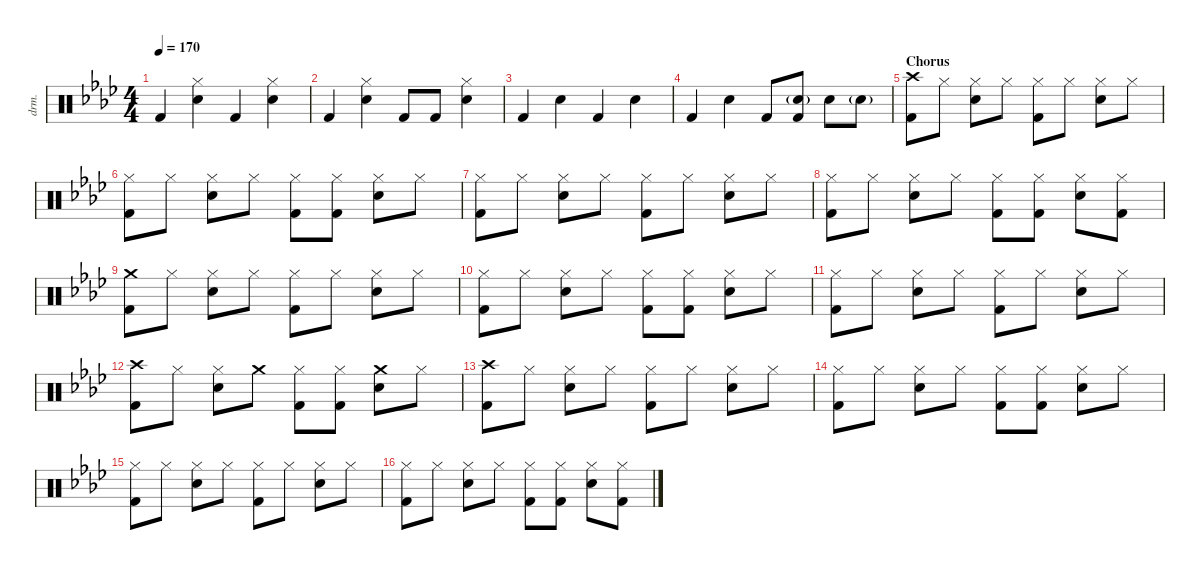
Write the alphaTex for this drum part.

\defaultSystemsLayout 4
\hideDynamics
\bracketExtendMode nobrackets
\otherSystemsTrackNameOrientation horizontal
\track ("Drumkit" "drm.") {instrument percussion}
\staff {score}
\articulation defaults
\ts (4 4)
\tempo 170
\clef neutral
\ks fminor "Kick (hit) 2"{acc forcenatural}.4{dy mf beam Up}
("Snare (hit) 2"{acc forcenatural} "Hi-Hat (closed)"{acc forcenatural}).4{beam Down} "Kick (hit) 2"{acc forcenatural}.4{beam Up} ("Snare (hit) 2"{acc forcenatural} "Hi-Hat (closed)"{acc forcenatural}).4{beam Down} |
"Kick (hit) 2"{acc forcenatural}.4{beam Up} ("Snare (hit) 2"{acc forcenatural} "Hi-Hat (closed)"{acc forcenatural}).4{beam Down} "Kick (hit) 2"{acc forcenatural}.8{beam Up} "Kick (hit) 2"{acc forcenatural}.8{beam Up} ("Snare (hit) 2"{acc forcenatural} "Hi-Hat (closed)"{acc forcenatural}).4{beam Down} |
"Kick (hit) 2"{acc forcenatural}.4{beam Up} "Snare (hit) 2"{acc forcenatural}.4{beam Down} "Kick (hit) 2"{acc forcenatural}.4{beam Up} "Snare (hit) 2"{acc forcenatural}.4{beam Down} |
"Kick (hit) 2"{acc forcenatural}.4{beam Up} "Snare (hit) 2"{acc forcenatural}.4{beam Down} "Kick (hit) 2"{acc forcenatural}.8{beam Up} ("Kick (hit) 2"{acc forcenatural} "Hand Clap (hit)"{g acc forcenatural}).8{beam Up} "Snare (hit) 2"{acc forcenatural}.8{beam Down} "Hand Clap (hit)"{g acc forcenatural}.8{beam Down} |
\section ("" "Chorus")
("Kick (hit) 2"{acc forcenatural} "Crash high (hit)"{acc forcenatural}).8{beam Down} "Hi-Hat (closed)"{acc forcenatural}.8{beam Down} ("Hi-Hat (closed)"{acc forcenatural} "Snare (hit) 2"{acc forcenatural}).8{beam Down} "Hi-Hat (closed)"{acc forcenatural}.8{beam Down} ("Hi-Hat (closed)"{acc forcenatural} "Kick (hit) 2"{acc forcenatural}).8{beam Down} "Hi-Hat (closed)"{acc forcenatural}.8{beam Down} ("Hi-Hat (closed)"{acc forcenatural} "Snare (hit) 2"{acc forcenatural}).8{beam Down} "Hi-Hat (closed)"{acc forcenatural}.8{beam Down} |
("Hi-Hat (closed)"{acc forcenatural} "Kick (hit) 2"{acc forcenatural}).8{beam Down} "Hi-Hat (closed)"{acc forcenatural}.8{beam Down} ("Hi-Hat (closed)"{acc forcenatural} "Snare (hit) 2"{acc forcenatural}).8{beam Down} "Hi-Hat (closed)"{acc forcenatural}.8{beam Down} ("Hi-Hat (closed)"{acc forcenatural} "Kick (hit) 2"{acc forcenatural}).8{beam Down} ("Hi-Hat (closed)"{acc forcenatural} "Kick (hit) 2"{acc forcenatural}).8{beam Down} ("Hi-Hat (closed)"{acc forcenatural} "Snare (hit) 2"{acc forcenatural}).8{beam Down} "Hi-Hat (closed)"{acc forcenatural}.8{beam Down} |
("Hi-Hat (closed)"{acc forcenatural} "Kick (hit) 2"{acc forcenatural}).8{beam Down} "Hi-Hat (closed)"{acc forcenatural}.8{beam Down} ("Hi-Hat (closed)"{acc forcenatural} "Snare (hit) 2"{acc forcenatural}).8{beam Down} "Hi-Hat (closed)"{acc forcenatural}.8{beam Down} ("Hi-Hat (closed)"{acc forcenatural} "Kick (hit) 2"{acc forcenatural}).8{beam Down} "Hi-Hat (closed)"{acc forcenatural}.8{beam Down} ("Hi-Hat (closed)"{acc forcenatural} "Snare (hit) 2"{acc forcenatural}).8{beam Down} "Hi-Hat (closed)"{acc forcenatural}.8{beam Down} |
("Hi-Hat (closed)"{acc forcenatural} "Kick (hit) 2"{acc forcenatural}).8{beam Down} "Hi-Hat (closed)"{acc forcenatural}.8{beam Down} ("Hi-Hat (closed)"{acc forcenatural} "Snare (hit) 2"{acc forcenatural}).8{beam Down} "Hi-Hat (closed)"{acc forcenatural}.8{beam Down} ("Hi-Hat (closed)"{acc forcenatural} "Kick (hit) 2"{acc forcenatural}).8{beam Down} ("Hi-Hat (closed)"{acc forcenatural} "Kick (hit) 2"{acc forcenatural}).8{beam Down} ("Hi-Hat (closed)"{acc forcenatural} "Snare (hit) 2"{acc forcenatural}).8{beam Down} ("Hi-Hat (closed)"{acc forcenatural} "Kick (hit) 2"{acc forcenatural}).8{beam Down} |
("Kick (hit) 2"{acc forcenatural} "Crash medium (hit)"{acc forcenatural}).8{beam Down} "Hi-Hat (closed)"{acc forcenatural}.8{beam Down} ("Hi-Hat (closed)"{acc forcenatural} "Snare (hit) 2"{acc forcenatural}).8{beam Down} "Hi-Hat (closed)"{acc forcenatural}.8{beam Down} ("Hi-Hat (closed)"{acc forcenatural} "Kick (hit) 2"{acc forcenatural}).8{beam Down} "Hi-Hat (closed)"{acc forcenatural}.8{beam Down} ("Hi-Hat (closed)"{acc forcenatural} "Snare (hit) 2"{acc forcenatural}).8{beam Down} "Hi-Hat (closed)"{acc forcenatural}.8{beam Down} |
("Hi-Hat (closed)"{acc forcenatural} "Kick (hit) 2"{acc forcenatural}).8{beam Down} "Hi-Hat (closed)"{acc forcenatural}.8{beam Down} ("Hi-Hat (closed)"{acc forcenatural} "Snare (hit) 2"{acc forcenatural}).8{beam Down} "Hi-Hat (closed)"{acc forcenatural}.8{beam Down} ("Hi-Hat (closed)"{acc forcenatural} "Kick (hit) 2"{acc forcenatural}).8{beam Down} ("Hi-Hat (closed)"{acc forcenatural} "Kick (hit) 2"{acc forcenatural}).8{beam Down} ("Hi-Hat (closed)"{acc forcenatural} "Snare (hit) 2"{acc forcenatural}).8{beam Down} "Hi-Hat (closed)"{acc forcenatural}.8{beam Down} |
("Hi-Hat (closed)"{acc forcenatural} "Kick (hit) 2"{acc forcenatural}).8{beam Down} "Hi-Hat (closed)"{acc forcenatural}.8{beam Down} ("Hi-Hat (closed)"{acc forcenatural} "Snare (hit) 2"{acc forcenatural}).8{beam Down} "Hi-Hat (closed)"{acc forcenatural}.8{beam Down} ("Hi-Hat (closed)"{acc forcenatural} "Kick (hit) 2"{acc forcenatural}).8{beam Down} "Hi-Hat (closed)"{acc forcenatural}.8{beam Down} ("Hi-Hat (closed)"{acc forcenatural} "Snare (hit) 2"{acc forcenatural}).8{beam Down} "Hi-Hat (closed)"{acc forcenatural}.8{beam Down} |
("Kick (hit) 2"{acc forcenatural} "Crash high (hit)"{acc forcenatural}).8{beam Down} "Hi-Hat (closed)"{acc forcenatural}.8{beam Down} ("Hi-Hat (closed)"{acc forcenatural} "Snare (hit) 2"{acc forcenatural}).8{beam Down} "Crash medium (hit)"{acc forcenatural}.8{beam Down} ("Hi-Hat (closed)"{acc forcenatural} "Kick (hit) 2"{acc forcenatural}).8{beam Down} ("Hi-Hat (closed)"{acc forcenatural} "Kick (hit) 2"{acc forcenatural}).8{beam Down} ("Snare (hit) 2"{acc forcenatural} "Crash medium (hit)"{acc forcenatural}).8{beam Down} "Hi-Hat (closed)"{acc forcenatural}.8{beam Down} |
("Kick (hit) 2"{acc forcenatural} "Crash high (hit)"{acc forcenatural}).8{beam Down} "Hi-Hat (closed)"{acc forcenatural}.8{beam Down} ("Hi-Hat (closed)"{acc forcenatural} "Snare (hit) 2"{acc forcenatural}).8{beam Down} "Hi-Hat (closed)"{acc forcenatural}.8{beam Down} ("Hi-Hat (closed)"{acc forcenatural} "Kick (hit) 2"{acc forcenatural}).8{beam Down} "Hi-Hat (closed)"{acc forcenatural}.8{beam Down} ("Hi-Hat (closed)"{acc forcenatural} "Snare (hit) 2"{acc forcenatural}).8{beam Down} "Hi-Hat (closed)"{acc forcenatural}.8{beam Down} |
("Hi-Hat (closed)"{acc forcenatural} "Kick (hit) 2"{acc forcenatural}).8{beam Down} "Hi-Hat (closed)"{acc forcenatural}.8{beam Down} ("Hi-Hat (closed)"{acc forcenatural} "Snare (hit) 2"{acc forcenatural}).8{beam Down} "Hi-Hat (closed)"{acc forcenatural}.8{beam Down} ("Hi-Hat (closed)"{acc forcenatural} "Kick (hit) 2"{acc forcenatural}).8{beam Down} ("Hi-Hat (closed)"{acc forcenatural} "Kick (hit) 2"{acc forcenatural}).8{beam Down} ("Hi-Hat (closed)"{acc forcenatural} "Snare (hit) 2"{acc forcenatural}).8{beam Down} "Hi-Hat (closed)"{acc forcenatural}.8{beam Down} |
("Hi-Hat (closed)"{acc forcenatural} "Kick (hit) 2"{acc forcenatural}).8{beam Down} "Hi-Hat (closed)"{acc forcenatural}.8{beam Down} ("Hi-Hat (closed)"{acc forcenatural} "Snare (hit) 2"{acc forcenatural}).8{beam Down} "Hi-Hat (closed)"{acc forcenatural}.8{beam Down} ("Hi-Hat (closed)"{acc forcenatural} "Kick (hit) 2"{acc forcenatural}).8{beam Down} "Hi-Hat (closed)"{acc forcenatural}.8{beam Down} ("Hi-Hat (closed)"{acc forcenatural} "Snare (hit) 2"{acc forcenatural}).8{beam Down} "Hi-Hat (closed)"{acc forcenatural}.8{beam Down} |
("Hi-Hat (closed)"{acc forcenatural} "Kick (hit) 2"{acc forcenatural}).8{beam Down} "Hi-Hat (closed)"{acc forcenatural}.8{beam Down} ("Hi-Hat (closed)"{acc forcenatural} "Snare (hit) 2"{acc forcenatural}).8{beam Down} "Hi-Hat (closed)"{acc forcenatural}.8{beam Down} ("Hi-Hat (closed)"{acc forcenatural} "Kick (hit) 2"{acc forcenatural}).8{beam Down} ("Hi-Hat (closed)"{acc forcenatural} "Kick (hit) 2"{acc forcenatural}).8{beam Down} ("Hi-Hat (closed)"{acc forcenatural} "Snare (hit) 2"{acc forcenatural}).8{beam Down} ("Hi-Hat (closed)"{acc forcenatural} "Kick (hit) 2"{acc forcenatural}).8{beam Down}
